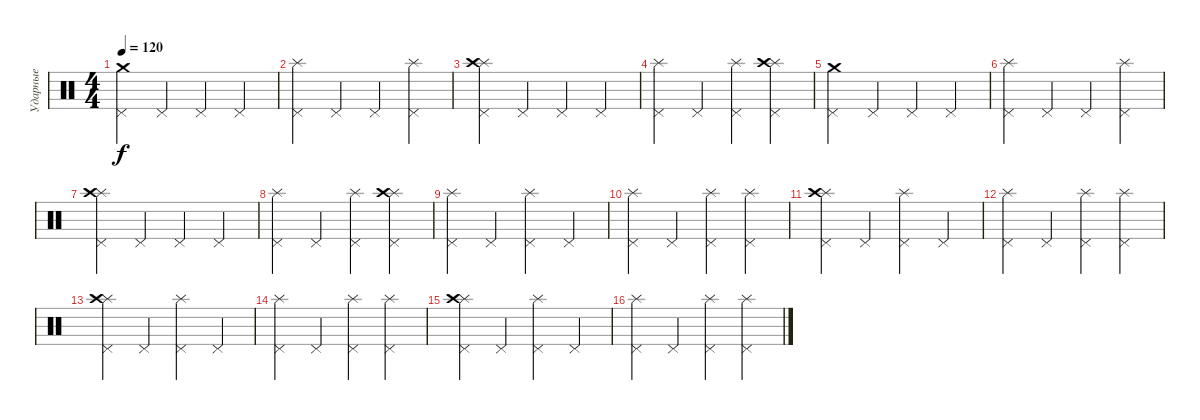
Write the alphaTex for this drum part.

\track ("Ударные" "Ударные") {instrument percussion}
\staff {score}
\articulation defaults
\ts (4 4)
\tempo 120
\clef neutral
\ks c
("Pedal Hi-Hat (hit)" "Crash medium (hit)").4{dy f} "Pedal Hi-Hat (hit)".4 "Pedal Hi-Hat (hit)".4 "Pedal Hi-Hat (hit)".4 |
("Pedal Hi-Hat (hit)" "Splash (hit)").4 "Pedal Hi-Hat (hit)".4 "Pedal Hi-Hat (hit)".4 ("Pedal Hi-Hat (hit)" "Splash (hit)").4 |
("Pedal Hi-Hat (hit)" "Splash (hit)" "Crash high (hit)").4 "Pedal Hi-Hat (hit)".4 "Pedal Hi-Hat (hit)".4 "Pedal Hi-Hat (hit)".4 |
("Pedal Hi-Hat (hit)" "Splash (hit)").4 "Pedal Hi-Hat (hit)".4 ("Pedal Hi-Hat (hit)" "Splash (hit)").4 ("Pedal Hi-Hat (hit)" "Splash (hit)" "Crash high (hit)").4 |
("Pedal Hi-Hat (hit)" "Crash medium (hit)").4 "Pedal Hi-Hat (hit)".4 "Pedal Hi-Hat (hit)".4 "Pedal Hi-Hat (hit)".4 |
("Pedal Hi-Hat (hit)" "Splash (hit)").4 "Pedal Hi-Hat (hit)".4 "Pedal Hi-Hat (hit)".4 ("Pedal Hi-Hat (hit)" "Splash (hit)").4 |
("Pedal Hi-Hat (hit)" "Splash (hit)" "Crash high (hit)").4 "Pedal Hi-Hat (hit)".4 "Pedal Hi-Hat (hit)".4 "Pedal Hi-Hat (hit)".4 |
("Pedal Hi-Hat (hit)" "Splash (hit)").4 "Pedal Hi-Hat (hit)".4 ("Pedal Hi-Hat (hit)" "Splash (hit)").4 ("Pedal Hi-Hat (hit)" "Splash (hit)" "Crash high (hit)").4 |
("Pedal Hi-Hat (hit)" "Splash (hit)").4 "Pedal Hi-Hat (hit)".4 ("Pedal Hi-Hat (hit)" "Splash (hit)").4 "Pedal Hi-Hat (hit)".4 |
("Pedal Hi-Hat (hit)" "Splash (hit)").4 "Pedal Hi-Hat (hit)".4 ("Pedal Hi-Hat (hit)" "Splash (hit)").4 ("Pedal Hi-Hat (hit)" "Splash (hit)").4 |
("Pedal Hi-Hat (hit)" "Splash (hit)" "Crash high (hit)").4 "Pedal Hi-Hat (hit)".4 ("Pedal Hi-Hat (hit)" "Splash (hit)").4 "Pedal Hi-Hat (hit)".4 |
("Pedal Hi-Hat (hit)" "Splash (hit)").4 "Pedal Hi-Hat (hit)".4 ("Pedal Hi-Hat (hit)" "Splash (hit)").4 ("Pedal Hi-Hat (hit)" "Splash (hit)").4 |
("Pedal Hi-Hat (hit)" "Splash (hit)" "Crash high (hit)").4 "Pedal Hi-Hat (hit)".4 ("Pedal Hi-Hat (hit)" "Splash (hit)").4 "Pedal Hi-Hat (hit)".4 |
("Pedal Hi-Hat (hit)" "Splash (hit)").4 "Pedal Hi-Hat (hit)".4 ("Pedal Hi-Hat (hit)" "Splash (hit)").4 ("Pedal Hi-Hat (hit)" "Splash (hit)").4 |
("Pedal Hi-Hat (hit)" "Splash (hit)" "Crash high (hit)").4 "Pedal Hi-Hat (hit)".4 ("Pedal Hi-Hat (hit)" "Splash (hit)").4 "Pedal Hi-Hat (hit)".4 |
("Pedal Hi-Hat (hit)" "Splash (hit)").4 "Pedal Hi-Hat (hit)".4 ("Pedal Hi-Hat (hit)" "Splash (hit)").4 ("Pedal Hi-Hat (hit)" "Splash (hit)").4
